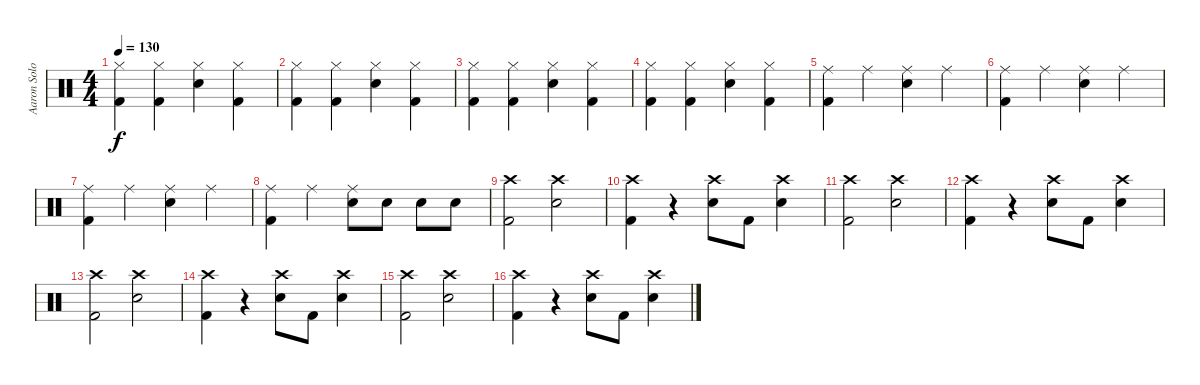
\track ("Aaron Solowoniuk" "Aaron Solo") {instrument percussion}
\staff {score}
\articulation defaults
\ts (4 4)
\tempo 130
\clef neutral
\ks c
("Hi-Hat (closed)" "Kick (hit) 2").4{dy f} ("Hi-Hat (closed)" "Kick (hit) 2").4 ("Hi-Hat (closed)" "Electric Snare (hit)").4 ("Hi-Hat (closed)" "Kick (hit) 2").4 |
("Hi-Hat (closed)" "Kick (hit) 2").4 ("Hi-Hat (closed)" "Kick (hit) 2").4 ("Hi-Hat (closed)" "Electric Snare (hit)").4 ("Hi-Hat (closed)" "Kick (hit) 2").4 |
("Hi-Hat (closed)" "Kick (hit) 2").4 ("Hi-Hat (closed)" "Kick (hit) 2").4 ("Hi-Hat (closed)" "Electric Snare (hit)").4 ("Hi-Hat (closed)" "Kick (hit) 2").4 |
("Hi-Hat (closed)" "Kick (hit) 2").4 ("Hi-Hat (closed)" "Kick (hit) 2").4 ("Hi-Hat (closed)" "Electric Snare (hit)").4 ("Hi-Hat (closed)" "Kick (hit) 2").4 |
("Ride (middle)" "Kick (hit) 2").4 "Ride (middle)".4 ("Ride (middle)" "Electric Snare (hit)").4 "Ride (middle)".4 |
("Ride (middle)" "Kick (hit) 2").4 "Ride (middle)".4 ("Ride (middle)" "Electric Snare (hit)").4 "Ride (middle)".4 |
("Ride (middle)" "Kick (hit) 2").4 "Ride (middle)".4 ("Ride (middle)" "Electric Snare (hit)").4 "Ride (middle)".4 |
("Ride (middle)" "Kick (hit) 2").4 "Ride (middle)".4 ("Ride (middle)" "Electric Snare (hit)").8 "Electric Snare (hit)".8 "Electric Snare (hit)".8 "Electric Snare (hit)".8 |
("Crash high (hit)" "Kick (hit) 2").2 ("Crash high (hit)" "Electric Snare (hit)").2 |
("Crash high (hit)" "Kick (hit) 2").4 r.4 ("Crash high (hit)" "Electric Snare (hit)").8 "Kick (hit) 2".8 ("Crash high (hit)" "Electric Snare (hit)").4 |
("Crash high (hit)" "Kick (hit) 2").2 ("Crash high (hit)" "Electric Snare (hit)").2 |
("Crash high (hit)" "Kick (hit) 2").4 r.4 ("Crash high (hit)" "Electric Snare (hit)").8 "Kick (hit) 2".8 ("Crash high (hit)" "Electric Snare (hit)").4 |
("Crash high (hit)" "Kick (hit) 2").2 ("Crash high (hit)" "Electric Snare (hit)").2 |
("Crash high (hit)" "Kick (hit) 2").4 r.4 ("Crash high (hit)" "Electric Snare (hit)").8 "Kick (hit) 2".8 ("Crash high (hit)" "Electric Snare (hit)").4 |
("Crash high (hit)" "Kick (hit) 2").2 ("Crash high (hit)" "Electric Snare (hit)").2 |
("Crash high (hit)" "Kick (hit) 2").4 r.4 ("Crash high (hit)" "Electric Snare (hit)").8 "Kick (hit) 2".8 ("Crash high (hit)" "Electric Snare (hit)").4
